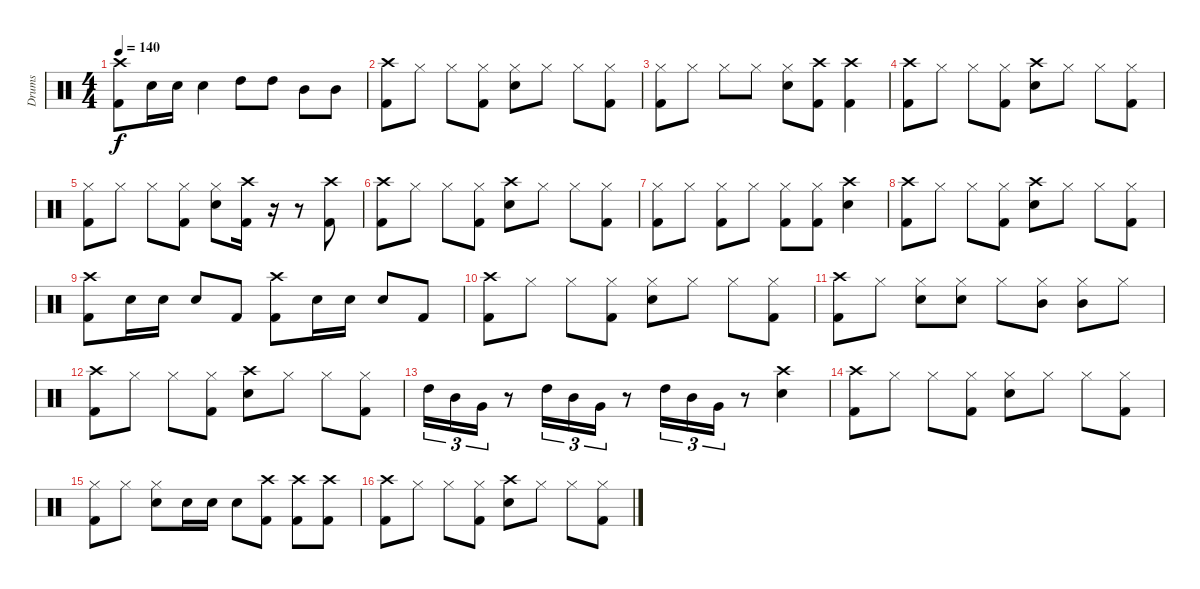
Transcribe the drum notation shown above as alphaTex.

\track ("Drums" "Drums") {instrument percussion}
\staff {score}
\articulation defaults
\ts (4 4)
\tempo 140
\clef neutral
\ks c
("Crash high (hit)" "Kick (hit) 2").8{dy f} "Snare (hit) 2".16 "Snare (hit) 2".16 "Snare (hit) 2".4 "High Tom (hit)".8 "High Tom (hit)".8 "Mid Tom (hit)".8 "Mid Tom (hit)".8 |
("Crash high (hit)" "Kick (hit) 2").8 "Hi-Hat (closed)".8 "Hi-Hat (closed)".8 ("Hi-Hat (closed)" "Kick (hit) 2").8 ("Hi-Hat (closed)" "Snare (hit) 2").8 "Hi-Hat (closed)".8 "Hi-Hat (closed)".8 ("Hi-Hat (closed)" "Kick (hit) 2").8 |
("Hi-Hat (closed)" "Kick (hit) 2").8 "Hi-Hat (closed)".8 "Hi-Hat (closed)".8 "Hi-Hat (closed)".8 ("Hi-Hat (closed)" "Snare (hit) 2").8 ("Crash high (hit)" "Kick (hit) 2").8 ("Crash high (hit)" "Kick (hit) 2").4 |
("Crash high (hit)" "Kick (hit) 2").8 "Hi-Hat (closed)".8 "Hi-Hat (closed)".8 ("Hi-Hat (closed)" "Kick (hit) 2").8 ("Crash high (hit)" "Snare (hit) 2").8 "Hi-Hat (closed)".8 "Hi-Hat (closed)".8 ("Hi-Hat (closed)" "Kick (hit) 2").8 |
("Hi-Hat (closed)" "Kick (hit) 2").8 "Hi-Hat (closed)".8 "Hi-Hat (closed)".8 ("Hi-Hat (closed)" "Kick (hit) 2").8 ("Hi-Hat (closed)" "Snare (hit) 2").8 ("Crash high (hit)" "Kick (hit) 2").16 r.16 r.8 ("Crash high (hit)" "Kick (hit) 2").8 |
("Crash high (hit)" "Kick (hit) 2").8 "Hi-Hat (closed)".8 "Hi-Hat (closed)".8 ("Hi-Hat (closed)" "Kick (hit) 2").8 ("Crash high (hit)" "Snare (hit) 2").8 "Hi-Hat (closed)".8 "Hi-Hat (closed)".8 ("Hi-Hat (closed)" "Kick (hit) 2").8 |
("Hi-Hat (closed)" "Kick (hit) 2").8 "Hi-Hat (closed)".8 ("Hi-Hat (closed)" "Kick (hit) 2").8 "Hi-Hat (closed)".8 ("Hi-Hat (closed)" "Kick (hit) 2").8 ("Hi-Hat (closed)" "Kick (hit) 2").8 ("Crash high (hit)" "Snare (hit) 2").4 |
("Crash high (hit)" "Kick (hit) 2").8 "Hi-Hat (closed)".8 "Hi-Hat (closed)".8 ("Hi-Hat (closed)" "Kick (hit) 2").8 ("Crash high (hit)" "Snare (hit) 2").8 "Hi-Hat (closed)".8 "Hi-Hat (closed)".8 ("Hi-Hat (closed)" "Kick (hit) 2").8 |
("Crash high (hit)" "Kick (hit) 2").8 "Snare (hit) 2".16 "Snare (hit) 2".16 "Snare (hit) 2".8 "Kick (hit) 2".8 ("Crash high (hit)" "Kick (hit) 2").8 "Snare (hit) 2".16 "Snare (hit) 2".16 "Snare (hit) 2".8 "Kick (hit) 2".8 |
("Crash high (hit)" "Kick (hit) 2").8 "Hi-Hat (closed)".8 "Hi-Hat (closed)".8 ("Hi-Hat (closed)" "Kick (hit) 2").8 ("Hi-Hat (closed)" "Snare (hit) 2").8 "Hi-Hat (closed)".8 "Hi-Hat (closed)".8 ("Hi-Hat (closed)" "Kick (hit) 2").8 |
("Crash high (hit)" "Kick (hit) 2").8 "Hi-Hat (closed)".8 ("Hi-Hat (closed)" "Snare (hit) 2").8 ("Hi-Hat (closed)" "Snare (hit) 2").8 "Hi-Hat (closed)".8 ("Hi-Hat (closed)" "Mid Tom (hit)").8 ("Hi-Hat (closed)" "Mid Tom (hit)").8 "Hi-Hat (closed)".8 |
("Crash high (hit)" "Kick (hit) 2").8 "Hi-Hat (closed)".8 "Hi-Hat (closed)".8 ("Hi-Hat (closed)" "Kick (hit) 2").8 ("Crash high (hit)" "Snare (hit) 2").8 "Hi-Hat (closed)".8 "Hi-Hat (closed)".8 ("Hi-Hat (closed)" "Kick (hit) 2").8 |
"High Tom (hit)".16{tu (3 2)} "Mid Tom (hit)".16{tu (3 2)} "Very Low Tom (hit)".16{tu (3 2)} r.8 "High Tom (hit)".16{tu (3 2)} "Mid Tom (hit)".16{tu (3 2)} "Very Low Tom (hit)".16{tu (3 2)} r.8 "High Tom (hit)".16{tu (3 2)} "Mid Tom (hit)".16{tu (3 2)} "Very Low Tom (hit)".16{tu (3 2)} r.8 ("Crash high (hit)" "Snare (hit) 2").4 |
("Crash high (hit)" "Kick (hit) 2").8 "Hi-Hat (closed)".8 "Hi-Hat (closed)".8 ("Hi-Hat (closed)" "Kick (hit) 2").8 ("Hi-Hat (closed)" "Snare (hit) 2").8 "Hi-Hat (closed)".8 "Hi-Hat (closed)".8 ("Hi-Hat (closed)" "Kick (hit) 2").8 |
("Hi-Hat (closed)" "Kick (hit) 2").8 "Hi-Hat (closed)".8 ("Hi-Hat (closed)" "Snare (hit) 2").8 "Snare (hit) 2".16 "Snare (hit) 2".16 "Snare (hit) 2".8 ("Crash high (hit)" "Kick (hit) 2").8 ("Crash high (hit)" "Kick (hit) 2").8 ("Crash high (hit)" "Kick (hit) 2").8 |
("Crash high (hit)" "Kick (hit) 2").8 "Hi-Hat (closed)".8 "Hi-Hat (closed)".8 ("Hi-Hat (closed)" "Kick (hit) 2").8 ("Crash high (hit)" "Snare (hit) 2").8 "Hi-Hat (closed)".8 "Hi-Hat (closed)".8 ("Hi-Hat (closed)" "Kick (hit) 2").8
